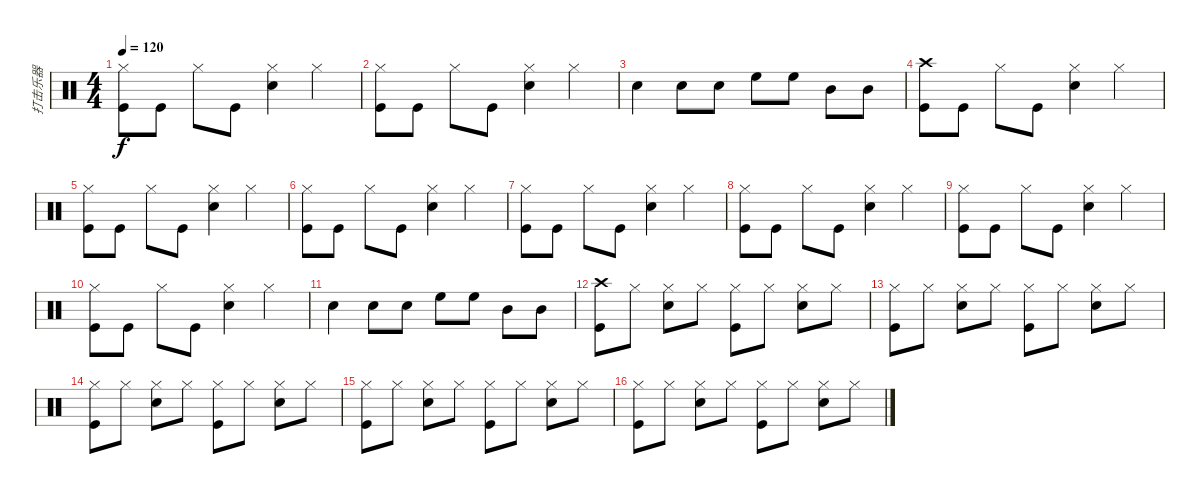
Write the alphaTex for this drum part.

\track ("打击乐器" "打击乐器") {instrument percussion}
\staff {score}
\articulation defaults
\ts (4 4)
\tempo 120
\clef neutral
\ks c
("Hi-Hat (closed)" "Kick (hit)").8{dy f} "Kick (hit)".8 "Hi-Hat (closed)".8 "Kick (hit)".8 ("Hi-Hat (closed)" "Electric Snare (hit)").4 "Hi-Hat (closed)".4 |
("Hi-Hat (closed)" "Kick (hit)").8 "Kick (hit)".8 "Hi-Hat (closed)".8 "Kick (hit)".8 ("Hi-Hat (closed)" "Electric Snare (hit)").4 "Hi-Hat (closed)".4 |
"Electric Snare (hit)".4 "Electric Snare (hit)".8 "Electric Snare (hit)".8 "High Floor Tom (hit)".8 "High Floor Tom (hit)".8 "Mid Tom (hit)".8 "Mid Tom (hit)".8 |
("Crash high (hit)" "Kick (hit)").8 "Kick (hit)".8 "Hi-Hat (closed)".8 "Kick (hit)".8 ("Hi-Hat (closed)" "Electric Snare (hit)").4 "Hi-Hat (closed)".4 |
("Hi-Hat (closed)" "Kick (hit)").8 "Kick (hit)".8 "Hi-Hat (closed)".8 "Kick (hit)".8 ("Hi-Hat (closed)" "Electric Snare (hit)").4 "Hi-Hat (closed)".4 |
("Hi-Hat (closed)" "Kick (hit)").8 "Kick (hit)".8 "Hi-Hat (closed)".8 "Kick (hit)".8 ("Hi-Hat (closed)" "Electric Snare (hit)").4 "Hi-Hat (closed)".4 |
("Hi-Hat (closed)" "Kick (hit)").8 "Kick (hit)".8 "Hi-Hat (closed)".8 "Kick (hit)".8 ("Hi-Hat (closed)" "Electric Snare (hit)").4 "Hi-Hat (closed)".4 |
("Hi-Hat (closed)" "Kick (hit)").8 "Kick (hit)".8 "Hi-Hat (closed)".8 "Kick (hit)".8 ("Hi-Hat (closed)" "Electric Snare (hit)").4 "Hi-Hat (closed)".4 |
("Hi-Hat (closed)" "Kick (hit)").8 "Kick (hit)".8 "Hi-Hat (closed)".8 "Kick (hit)".8 ("Hi-Hat (closed)" "Electric Snare (hit)").4 "Hi-Hat (closed)".4 |
("Hi-Hat (closed)" "Kick (hit)").8 "Kick (hit)".8 "Hi-Hat (closed)".8 "Kick (hit)".8 ("Hi-Hat (closed)" "Electric Snare (hit)").4 "Hi-Hat (closed)".4 |
"Electric Snare (hit)".4 "Electric Snare (hit)".8 "Electric Snare (hit)".8 "High Floor Tom (hit)".8 "High Floor Tom (hit)".8 "Mid Tom (hit)".8 "Mid Tom (hit)".8 |
("Crash high (hit)" "Kick (hit)").8 "Hi-Hat (closed)".8 ("Hi-Hat (closed)" "Electric Snare (hit)").8 "Hi-Hat (closed)".8 ("Hi-Hat (closed)" "Kick (hit)").8 "Hi-Hat (closed)".8 ("Hi-Hat (closed)" "Electric Snare (hit)").8 "Hi-Hat (closed)".8 |
("Hi-Hat (closed)" "Kick (hit)").8 "Hi-Hat (closed)".8 ("Hi-Hat (closed)" "Electric Snare (hit)").8 "Hi-Hat (closed)".8 ("Hi-Hat (closed)" "Kick (hit)").8 "Hi-Hat (closed)".8 ("Hi-Hat (closed)" "Electric Snare (hit)").8 "Hi-Hat (closed)".8 |
("Hi-Hat (closed)" "Kick (hit)").8 "Hi-Hat (closed)".8 ("Hi-Hat (closed)" "Electric Snare (hit)").8 "Hi-Hat (closed)".8 ("Hi-Hat (closed)" "Kick (hit)").8 "Hi-Hat (closed)".8 ("Hi-Hat (closed)" "Electric Snare (hit)").8 "Hi-Hat (closed)".8 |
("Hi-Hat (closed)" "Kick (hit)").8 "Hi-Hat (closed)".8 ("Hi-Hat (closed)" "Electric Snare (hit)").8 "Hi-Hat (closed)".8 ("Hi-Hat (closed)" "Kick (hit)").8 "Hi-Hat (closed)".8 ("Hi-Hat (closed)" "Electric Snare (hit)").8 "Hi-Hat (closed)".8 |
("Hi-Hat (closed)" "Kick (hit)").8 "Hi-Hat (closed)".8 ("Hi-Hat (closed)" "Electric Snare (hit)").8 "Hi-Hat (closed)".8 ("Hi-Hat (closed)" "Kick (hit)").8 "Hi-Hat (closed)".8 ("Hi-Hat (closed)" "Electric Snare (hit)").8 "Hi-Hat (closed)".8
